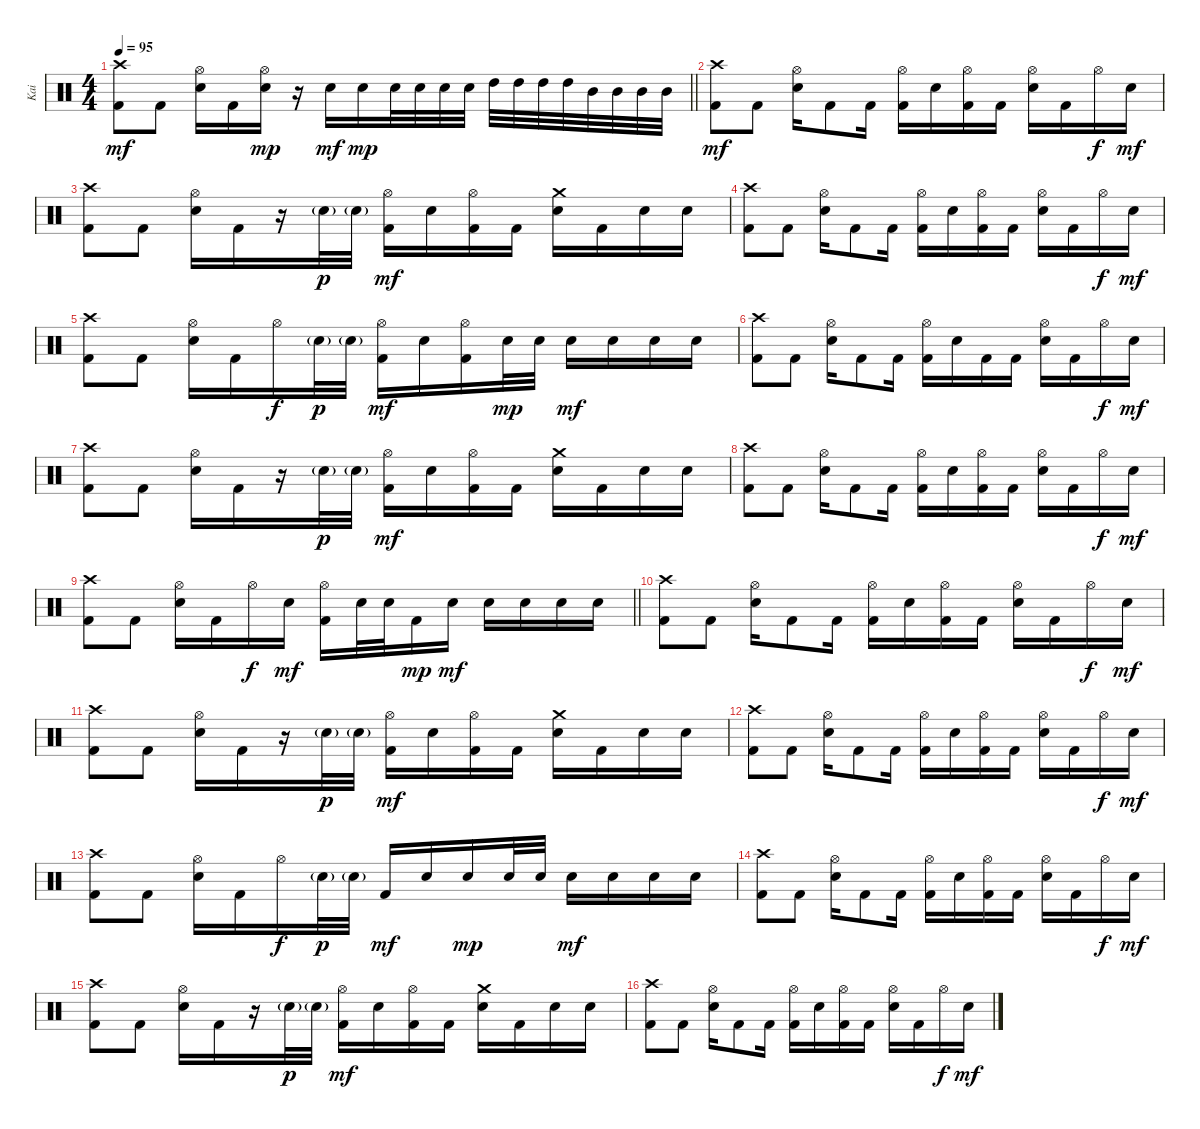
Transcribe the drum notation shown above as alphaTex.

\track ("Kai" "Kai") {instrument percussion}
\staff {score}
\articulation defaults
\ts (4 4)
\tempo 95
\clef neutral
\barLineRight lightlight
\ks c
("Crash high (hit)" "Kick (hit) 2").8{dy mf} "Kick (hit) 2".8 ("Hi-Hat (open)" "Electric Snare (hit)").16 "Kick (hit) 2".16 ("Hi-Hat (open)" "Electric Snare (hit)").16{dy mp} r.16 "Electric Snare (hit)".16{dy mf} "Electric Snare (hit)".16{dy mp} "Electric Snare (hit)".32 "Electric Snare (hit)".32 "Electric Snare (hit)".32 "Electric Snare (hit)".32 "High Tom (hit)".32 "High Tom (hit)".32 "High Tom (hit)".32 "High Tom (hit)".32 "Mid Tom (hit)".32 "Mid Tom (hit)".32 "Mid Tom (hit)".32 "Mid Tom (hit)".32 |
\section ("" "")
("Crash high (hit)" "Kick (hit) 2").8{dy mf} "Kick (hit) 2".8 ("Hi-Hat (open)" "Electric Snare (hit)").16 "Kick (hit) 2".8 "Kick (hit) 2".16 ("Hi-Hat (open)" "Kick (hit) 2").16 "Electric Snare (hit)".16 ("Hi-Hat (open)" "Kick (hit) 2").16 "Kick (hit) 2".16 ("Hi-Hat (open)" "Electric Snare (hit)").16 "Kick (hit) 2".16 "Hi-Hat (open)".16{dy f} "Electric Snare (hit)".16{dy mf} |
("Crash high (hit)" "Kick (hit) 2").8 "Kick (hit) 2".8 ("Hi-Hat (open)" "Electric Snare (hit)").16 "Kick (hit) 2".16 r.16 "Electric Snare (hit)"{g}.32{dy p} "Electric Snare (hit)"{g}.32 ("Hi-Hat (open)" "Kick (hit) 2").16{dy mf} "Electric Snare (hit)".16 ("Hi-Hat (open)" "Kick (hit) 2").16 "Kick (hit) 2".16 ("Crash medium (hit)" "Electric Snare (hit)").16 "Kick (hit) 2".16 "Electric Snare (hit)".16 "Electric Snare (hit)".16 |
("Crash high (hit)" "Kick (hit) 2").8 "Kick (hit) 2".8 ("Hi-Hat (open)" "Electric Snare (hit)").16 "Kick (hit) 2".8 "Kick (hit) 2".16 ("Hi-Hat (open)" "Kick (hit) 2").16 "Electric Snare (hit)".16 ("Hi-Hat (open)" "Kick (hit) 2").16 "Kick (hit) 2".16 ("Hi-Hat (open)" "Electric Snare (hit)").16 "Kick (hit) 2".16 "Hi-Hat (open)".16{dy f} "Electric Snare (hit)".16{dy mf} |
("Crash high (hit)" "Kick (hit) 2").8 "Kick (hit) 2".8 ("Hi-Hat (open)" "Electric Snare (hit)").16 "Kick (hit) 2".16 "Hi-Hat (open)".16{dy f} "Electric Snare (hit)"{g}.32{dy p} "Electric Snare (hit)"{g}.32 ("Hi-Hat (open)" "Kick (hit) 2").16{dy mf} "Electric Snare (hit)".16 ("Hi-Hat (open)" "Kick (hit) 2").16 "Electric Snare (hit)".32{dy mp} "Electric Snare (hit)".32 "Electric Snare (hit)".16{dy mf} "Electric Snare (hit)".16 "Electric Snare (hit)".16 "Electric Snare (hit)".16 |
("Crash high (hit)" "Kick (hit) 2").8 "Kick (hit) 2".8 ("Hi-Hat (open)" "Electric Snare (hit)").16 "Kick (hit) 2".8 "Kick (hit) 2".16 ("Hi-Hat (open)" "Kick (hit) 2").16 "Electric Snare (hit)".16 "Kick (hit) 2".16 "Kick (hit) 2".16 ("Hi-Hat (open)" "Electric Snare (hit)").16 "Kick (hit) 2".16 "Hi-Hat (open)".16{dy f} "Electric Snare (hit)".16{dy mf} |
("Crash high (hit)" "Kick (hit) 2").8 "Kick (hit) 2".8 ("Hi-Hat (open)" "Electric Snare (hit)").16 "Kick (hit) 2".16 r.16 "Electric Snare (hit)"{g}.32{dy p} "Electric Snare (hit)"{g}.32 ("Hi-Hat (open)" "Kick (hit) 2").16{dy mf} "Electric Snare (hit)".16 ("Hi-Hat (open)" "Kick (hit) 2").16 "Kick (hit) 2".16 ("Crash medium (hit)" "Electric Snare (hit)").16 "Kick (hit) 2".16 "Electric Snare (hit)".16 "Electric Snare (hit)".16 |
("Crash high (hit)" "Kick (hit) 2").8 "Kick (hit) 2".8 ("Hi-Hat (open)" "Electric Snare (hit)").16 "Kick (hit) 2".8 "Kick (hit) 2".16 ("Hi-Hat (open)" "Kick (hit) 2").16 "Electric Snare (hit)".16 ("Hi-Hat (open)" "Kick (hit) 2").16 "Kick (hit) 2".16 ("Hi-Hat (open)" "Electric Snare (hit)").16 "Kick (hit) 2".16 "Hi-Hat (open)".16{dy f} "Electric Snare (hit)".16{dy mf} |
\barLineRight lightlight
("Crash high (hit)" "Kick (hit) 2").8 "Kick (hit) 2".8 ("Hi-Hat (open)" "Electric Snare (hit)").16 "Kick (hit) 2".16 "Hi-Hat (open)".16{dy f} "Electric Snare (hit)".16{dy mf} ("Hi-Hat (open)" "Kick (hit) 2").16 "Electric Snare (hit)".32 "Electric Snare (hit)".32 "Kick (hit) 2".16{dy mp} "Electric Snare (hit)".16{dy mf} "Electric Snare (hit)".16 "Electric Snare (hit)".16 "Electric Snare (hit)".16 "Electric Snare (hit)".16 |
\section ("" "")
("Crash high (hit)" "Kick (hit) 2").8 "Kick (hit) 2".8 ("Hi-Hat (open)" "Electric Snare (hit)").16 "Kick (hit) 2".8 "Kick (hit) 2".16 ("Hi-Hat (open)" "Kick (hit) 2").16 "Electric Snare (hit)".16 ("Hi-Hat (open)" "Kick (hit) 2").16 "Kick (hit) 2".16 ("Hi-Hat (open)" "Electric Snare (hit)").16 "Kick (hit) 2".16 "Hi-Hat (open)".16{dy f} "Electric Snare (hit)".16{dy mf} |
("Crash high (hit)" "Kick (hit) 2").8 "Kick (hit) 2".8 ("Hi-Hat (open)" "Electric Snare (hit)").16 "Kick (hit) 2".16 r.16 "Electric Snare (hit)"{g}.32{dy p} "Electric Snare (hit)"{g}.32 ("Hi-Hat (open)" "Kick (hit) 2").16{dy mf} "Electric Snare (hit)".16 ("Hi-Hat (open)" "Kick (hit) 2").16 "Kick (hit) 2".16 ("Crash medium (hit)" "Electric Snare (hit)").16 "Kick (hit) 2".16 "Electric Snare (hit)".16 "Electric Snare (hit)".16 |
("Crash high (hit)" "Kick (hit) 2").8 "Kick (hit) 2".8 ("Hi-Hat (open)" "Electric Snare (hit)").16 "Kick (hit) 2".8 "Kick (hit) 2".16 ("Hi-Hat (open)" "Kick (hit) 2").16 "Electric Snare (hit)".16 ("Hi-Hat (open)" "Kick (hit) 2").16 "Kick (hit) 2".16 ("Hi-Hat (open)" "Electric Snare (hit)").16 "Kick (hit) 2".16 "Hi-Hat (open)".16{dy f} "Electric Snare (hit)".16{dy mf} |
("Crash high (hit)" "Kick (hit) 2").8 "Kick (hit) 2".8 ("Hi-Hat (open)" "Electric Snare (hit)").16 "Kick (hit) 2".16 "Hi-Hat (open)".16{dy f} "Electric Snare (hit)"{g}.32{dy p} "Electric Snare (hit)"{g}.32 "Kick (hit) 2".16{dy mf} "Electric Snare (hit)".16 "Electric Snare (hit)".16{dy mp} "Electric Snare (hit)".32 "Electric Snare (hit)".32 "Electric Snare (hit)".16{dy mf} "Electric Snare (hit)".16 "Electric Snare (hit)".16 "Electric Snare (hit)".16 |
("Crash high (hit)" "Kick (hit) 2").8 "Kick (hit) 2".8 ("Hi-Hat (open)" "Electric Snare (hit)").16 "Kick (hit) 2".8 "Kick (hit) 2".16 ("Hi-Hat (open)" "Kick (hit) 2").16 "Electric Snare (hit)".16 ("Hi-Hat (open)" "Kick (hit) 2").16 "Kick (hit) 2".16 ("Hi-Hat (open)" "Electric Snare (hit)").16 "Kick (hit) 2".16 "Hi-Hat (open)".16{dy f} "Electric Snare (hit)".16{dy mf} |
("Crash high (hit)" "Kick (hit) 2").8 "Kick (hit) 2".8 ("Hi-Hat (open)" "Electric Snare (hit)").16 "Kick (hit) 2".16 r.16 "Electric Snare (hit)"{g}.32{dy p} "Electric Snare (hit)"{g}.32 ("Hi-Hat (open)" "Kick (hit) 2").16{dy mf} "Electric Snare (hit)".16 ("Hi-Hat (open)" "Kick (hit) 2").16 "Kick (hit) 2".16 ("Crash medium (hit)" "Electric Snare (hit)").16 "Kick (hit) 2".16 "Electric Snare (hit)".16 "Electric Snare (hit)".16 |
("Crash high (hit)" "Kick (hit) 2").8 "Kick (hit) 2".8 ("Hi-Hat (open)" "Electric Snare (hit)").16 "Kick (hit) 2".8 "Kick (hit) 2".16 ("Hi-Hat (open)" "Kick (hit) 2").16 "Electric Snare (hit)".16 ("Hi-Hat (open)" "Kick (hit) 2").16 "Kick (hit) 2".16 ("Hi-Hat (open)" "Electric Snare (hit)").16 "Kick (hit) 2".16 "Hi-Hat (open)".16{dy f} "Electric Snare (hit)".16{dy mf}
